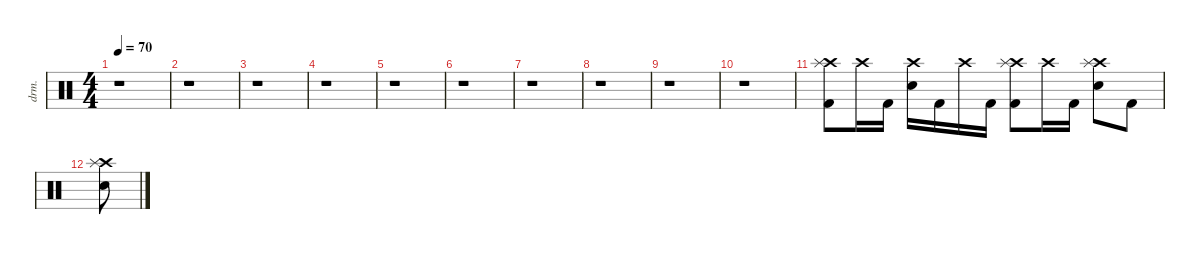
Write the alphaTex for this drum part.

\defaultSystemsLayout 4
\hideDynamics
\bracketExtendMode nobrackets
\track ("Drums" "drm.") {instrument percussion}
\staff {score}
\articulation defaults
\ts (4 4)
\tempo 70
\clef neutral
\ks c
r.1{dy mf} |
r.1 |
r.1 |
r.1 |
r.1 |
r.1 |
r.1 |
r.1 |
r.1 |
r.1 |
("Crash high (hit)" "Kick (hit) 2" "Splash (hit)").8 "Crash high (hit)".16 "Kick (hit) 2".16 ("Snare (hit) 2" "Crash high (hit)").16 "Kick (hit) 2".16 "Crash high (hit)".16 "Kick (hit) 2".16 ("Crash high (hit)" "Kick (hit) 2" "Splash (hit)").8 "Crash high (hit)".16 "Kick (hit) 2".16 ("Snare (hit) 2" "Crash high (hit)" "Splash (hit)").8 "Kick (hit) 2".8 |
("Snare (hit) 2" "Crash high (hit)" "Splash (hit)").8
